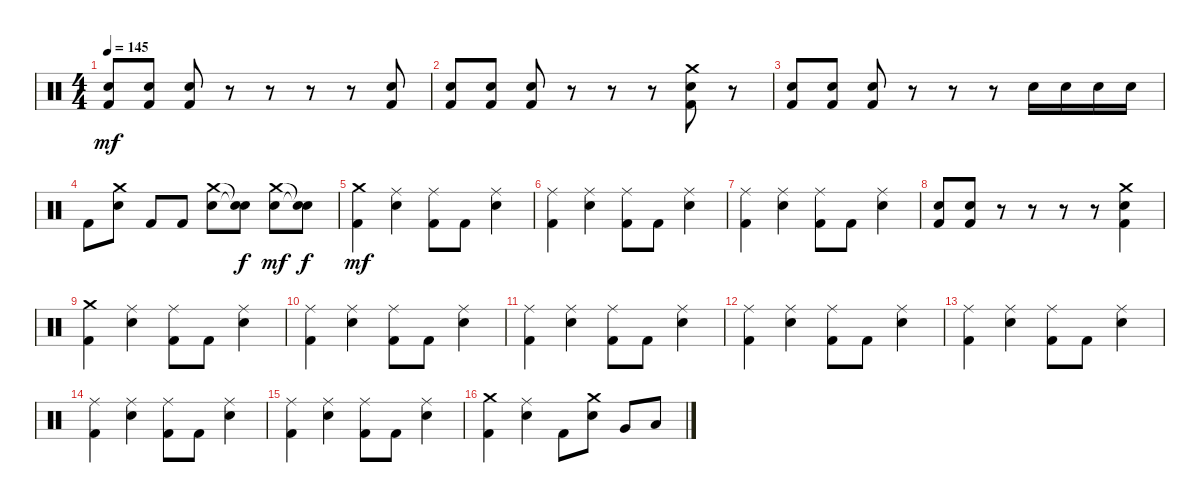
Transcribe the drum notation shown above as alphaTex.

\track "" {instrument percussion}
\staff {score}
\articulation defaults
\ts (4 4)
\tempo 145
\clef neutral
\ks c
("Snare (hit) 2" "Kick (hit) 2").8{dy mf} ("Snare (hit) 2" "Kick (hit) 2").8 ("Snare (hit) 2" "Kick (hit) 2").8 r.8 r.8 r.8 r.8 ("Snare (hit) 2" "Kick (hit) 2").8 |
("Snare (hit) 2" "Kick (hit) 2").8 ("Snare (hit) 2" "Kick (hit) 2").8 ("Snare (hit) 2" "Kick (hit) 2").8 r.8 r.8 r.8 ("Crash medium (hit)" "Snare (hit) 2" "Kick (hit) 2").8 r.8 |
("Snare (hit) 2" "Kick (hit) 2").8 ("Snare (hit) 2" "Kick (hit) 2").8 ("Snare (hit) 2" "Kick (hit) 2").8 r.8 r.8 r.8 "Snare (hit) 2".16 "Snare (hit) 2".16 "Snare (hit) 2".16 "Snare (hit) 2".16 |
"Kick (hit) 2".8 ("Crash medium (hit)" "Snare (hit) 2").8 "Kick (hit) 2".8 "Kick (hit) 2".8 ("Crash medium (hit)" "Snare (hit) 2").8 ("Snare (hit)"{t} "Snare (hit)"{t}).8{dy f} ("Crash medium (hit)" "Snare (hit) 2").8{dy mf} ("Snare (hit)"{t} "Snare (hit)"{t}).8{dy f} |
("Crash medium (hit)" "Kick (hit) 2").4{dy mf} ("Ride (middle)" "Snare (hit) 2").4 ("Ride (middle)" "Kick (hit) 2").8 "Kick (hit) 2".8 ("Ride (middle)" "Snare (hit) 2").4 |
("Ride (middle)" "Kick (hit) 2").4 ("Ride (middle)" "Snare (hit) 2").4 ("Ride (middle)" "Kick (hit) 2").8 "Kick (hit) 2".8 ("Ride (middle)" "Snare (hit) 2").4 |
("Ride (middle)" "Kick (hit) 2").4 ("Ride (middle)" "Snare (hit) 2").4 ("Ride (middle)" "Kick (hit) 2").8 "Kick (hit) 2".8 ("Ride (middle)" "Snare (hit) 2").4 |
("Snare (hit) 2" "Kick (hit) 2").8 ("Snare (hit) 2" "Kick (hit) 2").8 r.8 r.8 r.8 r.8 ("Crash medium (hit)" "Snare (hit) 2" "Kick (hit) 2").4 |
("Crash medium (hit)" "Kick (hit) 2").4 ("Ride (middle)" "Snare (hit) 2").4 ("Ride (middle)" "Kick (hit) 2").8 "Kick (hit) 2".8 ("Ride (middle)" "Snare (hit) 2").4 |
("Ride (middle)" "Kick (hit) 2").4 ("Ride (middle)" "Snare (hit) 2").4 ("Ride (middle)" "Kick (hit) 2").8 "Kick (hit) 2".8 ("Ride (middle)" "Snare (hit) 2").4 |
("Ride (middle)" "Kick (hit) 2").4 ("Ride (middle)" "Snare (hit) 2").4 ("Ride (middle)" "Kick (hit) 2").8 "Kick (hit) 2".8 ("Ride (middle)" "Snare (hit) 2").4 |
("Ride (middle)" "Kick (hit) 2").4 ("Ride (middle)" "Snare (hit) 2").4 ("Ride (middle)" "Kick (hit) 2").8 "Kick (hit) 2".8 ("Ride (middle)" "Snare (hit) 2").4 |
("Ride (middle)" "Kick (hit) 2").4 ("Ride (middle)" "Snare (hit) 2").4 ("Ride (middle)" "Kick (hit) 2").8 "Kick (hit) 2".8 ("Ride (middle)" "Snare (hit) 2").4 |
("Ride (middle)" "Kick (hit) 2").4 ("Ride (middle)" "Snare (hit) 2").4 ("Ride (middle)" "Kick (hit) 2").8 "Kick (hit) 2".8 ("Ride (middle)" "Snare (hit) 2").4 |
("Ride (middle)" "Kick (hit) 2").4 ("Ride (middle)" "Snare (hit) 2").4 ("Ride (middle)" "Kick (hit) 2").8 "Kick (hit) 2".8 ("Ride (middle)" "Snare (hit) 2").4 |
("Crash medium (hit)" "Kick (hit) 2").4 ("Ride (middle)" "Snare (hit) 2").4 "Kick (hit) 2".8 ("Crash medium (hit)" "Snare (hit) 2").8 "Very Low Tom (hit)".8 "Low Floor Tom (hit)".8
